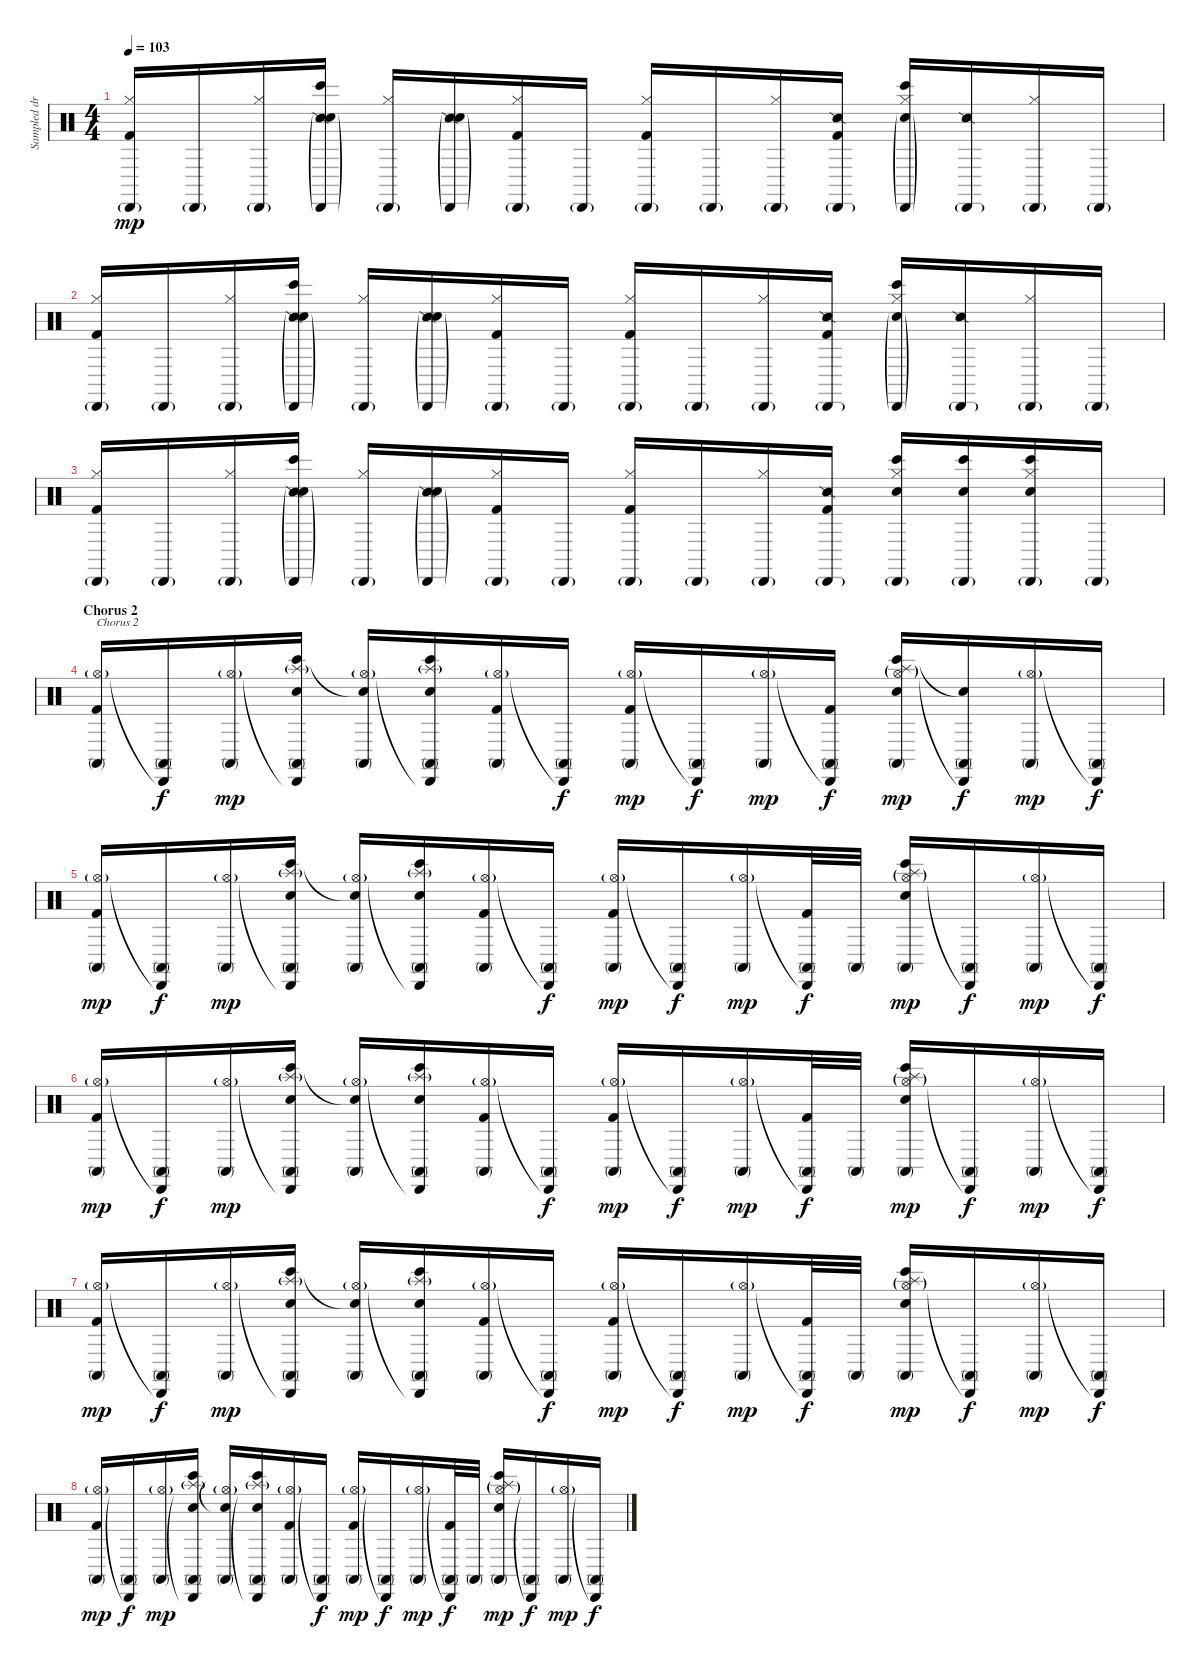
\track ("Sampled drums (Rob with Joe)" "Sampled dr") {instrument percussion}
\staff {score}
\articulation defaults
\ts (4 4)
\tempo 103
\clef neutral
\ks c
("Cabasa (hit)"{g} "Hi-Hat (closed)" "Kick (hit) 2").16{dy mp} "Cabasa (hit)"{g}.16 ("Cabasa (hit)"{g} "Hi-Hat (closed)").16 ("Cabasa (hit)"{g} "Snare (side stick) 2" "Bongo High (hit)" "Snare (hit) 2"{g}).16 ("Cabasa (hit)"{g} "Hi-Hat (closed)").16 ("Cabasa (hit)"{g} "Snare (side stick) 2" "Snare (hit) 2"{g}).16 ("Cabasa (hit)"{g} "Hi-Hat (closed)" "Kick (hit) 2").16 "Cabasa (hit)"{g}.16 ("Cabasa (hit)"{g} "Hi-Hat (closed)" "Kick (hit) 2").16 "Cabasa (hit)"{g}.16 ("Cabasa (hit)"{g} "Hi-Hat (closed)").16 ("Cabasa (hit)"{g} "Snare (side stick) 2" "Kick (hit) 2").16 ("Cabasa (hit)"{g} "Hi-Hat (closed)" "Bongo High (hit)" "Snare (hit) 2"{g}).16 ("Cabasa (hit)"{g} "Snare (side stick) 2").16 ("Cabasa (hit)"{g} "Hi-Hat (closed)").16 "Cabasa (hit)"{g}.16 |
("Cabasa (hit)"{g} "Hi-Hat (closed)" "Kick (hit) 2").16 "Cabasa (hit)"{g}.16 ("Cabasa (hit)"{g} "Hi-Hat (closed)").16 ("Cabasa (hit)"{g} "Snare (side stick) 2" "Bongo High (hit)" "Snare (hit) 2"{g}).16 ("Cabasa (hit)"{g} "Hi-Hat (closed)").16 ("Cabasa (hit)"{g} "Snare (side stick) 2" "Snare (hit) 2"{g}).16 ("Cabasa (hit)"{g} "Hi-Hat (closed)" "Kick (hit) 2").16 "Cabasa (hit)"{g}.16 ("Cabasa (hit)"{g} "Hi-Hat (closed)" "Kick (hit) 2").16 "Cabasa (hit)"{g}.16 ("Cabasa (hit)"{g} "Hi-Hat (closed)").16 ("Cabasa (hit)"{g} "Snare (side stick) 2" "Kick (hit) 2").16 ("Cabasa (hit)"{g} "Hi-Hat (closed)" "Bongo High (hit)" "Snare (hit) 2"{g}).16 ("Cabasa (hit)"{g} "Snare (side stick) 2").16 ("Cabasa (hit)"{g} "Hi-Hat (closed)").16 "Cabasa (hit)"{g}.16 |
("Cabasa (hit)"{g} "Hi-Hat (closed)" "Kick (hit) 2").16 "Cabasa (hit)"{g}.16 ("Cabasa (hit)"{g} "Hi-Hat (closed)").16 ("Cabasa (hit)"{g} "Snare (side stick) 2" "Bongo High (hit)" "Snare (hit) 2"{g}).16 ("Cabasa (hit)"{g} "Hi-Hat (closed)").16 ("Cabasa (hit)"{g} "Snare (side stick) 2" "Snare (hit) 2"{g}).16 ("Cabasa (hit)"{g} "Hi-Hat (closed)" "Kick (hit) 2").16 "Cabasa (hit)"{g}.16 ("Cabasa (hit)"{g} "Hi-Hat (closed)" "Kick (hit) 2").16 "Cabasa (hit)"{g}.16 ("Cabasa (hit)"{g} "Hi-Hat (closed)").16 ("Cabasa (hit)"{g} "Snare (side stick) 2" "Kick (hit) 2").16 ("Cabasa (hit)"{g} "Hi-Hat (closed)" "Bongo High (hit)" "Snare (hit) 2").16 ("Cabasa (hit)"{g} "Bongo High (hit)" "Snare (hit) 2").16 ("Cabasa (hit)"{g} "Hi-Hat (closed)" "Bongo High (hit)" "Snare (hit) 2").16 "Cabasa (hit)"{g}.16 |
\section ("" "Chorus 2")
("Hi-Hat (open)"{g} "Conga high (mute)" "Kick (hit) 2").16{txt "Chorus 2" volume 8} ("Cabasa (hit)"{t} "Conga high (mute)").16{dy f} ("Hi-Hat (open)"{g} "Conga high (mute)").16{dy mp} ("Cabasa (hit)"{t} "Conga high (mute)" "Bongo High (hit)" "Snare (hit) 2" "Splash (hit)"{g}).16 ("Hi-Hat (open)"{g} "Conga high (mute)" "Snare (hit)"{t}).16 ("Cabasa (hit)"{t} "Conga high (mute)" "Bongo High (hit)" "Snare (hit) 2" "Splash (hit)"{g}).16 ("Hi-Hat (open)"{g} "Conga high (mute)" "Kick (hit) 2").16 ("Cabasa (hit)"{t} "Conga high (mute)").16{dy f} ("Hi-Hat (open)"{g} "Conga high (mute)" "Kick (hit) 2").16{dy mp} ("Cabasa (hit)"{t} "Conga high (mute)").16{dy f} ("Hi-Hat (open)"{g} "Conga high (mute)").16{dy mp} ("Cabasa (hit)"{t} "Conga high (mute)" "Kick (hit) 2").16{dy f} ("Hi-Hat (open)"{g} "Conga high (mute)" "Bongo High (hit)" "Snare (hit) 2" "Splash (hit)"{g}).16{dy mp} ("Cabasa (hit)"{t} "Conga high (mute)" "Snare (hit)"{t}).16{dy f} ("Hi-Hat (open)"{g} "Conga high (mute)").16{dy mp} ("Cabasa (hit)"{t} "Conga high (mute)").16{dy f} |
("Hi-Hat (open)"{g} "Conga high (mute)" "Kick (hit) 2").16{dy mp volume 8} ("Cabasa (hit)"{t} "Conga high (mute)").16{dy f} ("Hi-Hat (open)"{g} "Conga high (mute)").16{dy mp} ("Cabasa (hit)"{t} "Conga high (mute)" "Bongo High (hit)" "Snare (hit) 2" "Splash (hit)"{g}).16 ("Hi-Hat (open)"{g} "Conga high (mute)" "Snare (hit)"{t}).16 ("Cabasa (hit)"{t} "Conga high (mute)" "Bongo High (hit)" "Snare (hit) 2" "Splash (hit)"{g}).16 ("Hi-Hat (open)"{g} "Conga high (mute)" "Kick (hit) 2").16 ("Cabasa (hit)"{t} "Conga high (mute)").16{dy f} ("Hi-Hat (open)"{g} "Conga high (mute)" "Kick (hit) 2").16{dy mp} ("Cabasa (hit)"{t} "Conga high (mute)").16{dy f} ("Hi-Hat (open)"{g} "Conga high (mute)").16{dy mp} ("Cabasa (hit)"{t} "Conga high (mute)" "Kick (hit) 2").32{dy f} "Conga high (mute)".32 ("Hi-Hat (open)"{g} "Conga high (mute)" "Bongo High (hit)" "Snare (hit) 2" "Splash (hit)"{g}).16{dy mp} ("Cabasa (hit)"{t} "Conga high (mute)").16{dy f} ("Hi-Hat (open)"{g} "Conga high (mute)").16{dy mp} ("Cabasa (hit)"{t} "Conga high (mute)").16{dy f} |
("Hi-Hat (open)"{g} "Conga high (mute)" "Kick (hit) 2").16{dy mp volume 8} ("Cabasa (hit)"{t} "Conga high (mute)").16{dy f} ("Hi-Hat (open)"{g} "Conga high (mute)").16{dy mp} ("Cabasa (hit)"{t} "Conga high (mute)" "Bongo High (hit)" "Snare (hit) 2" "Splash (hit)"{g}).16 ("Hi-Hat (open)"{g} "Conga high (mute)" "Snare (hit)"{t}).16 ("Cabasa (hit)"{t} "Conga high (mute)" "Bongo High (hit)" "Snare (hit) 2" "Splash (hit)"{g}).16 ("Hi-Hat (open)"{g} "Conga high (mute)" "Kick (hit) 2").16 ("Cabasa (hit)"{t} "Conga high (mute)").16{dy f} ("Hi-Hat (open)"{g} "Conga high (mute)" "Kick (hit) 2").16{dy mp} ("Cabasa (hit)"{t} "Conga high (mute)").16{dy f} ("Hi-Hat (open)"{g} "Conga high (mute)").16{dy mp} ("Cabasa (hit)"{t} "Conga high (mute)" "Kick (hit) 2").32{dy f} "Conga high (mute)".32 ("Hi-Hat (open)"{g} "Conga high (mute)" "Bongo High (hit)" "Snare (hit) 2" "Splash (hit)"{g}).16{dy mp} ("Cabasa (hit)"{t} "Conga high (mute)").16{dy f} ("Hi-Hat (open)"{g} "Conga high (mute)").16{dy mp} ("Cabasa (hit)"{t} "Conga high (mute)").16{dy f} |
("Hi-Hat (open)"{g} "Conga high (mute)" "Kick (hit) 2").16{dy mp volume 8} ("Cabasa (hit)"{t} "Conga high (mute)").16{dy f} ("Hi-Hat (open)"{g} "Conga high (mute)").16{dy mp} ("Cabasa (hit)"{t} "Conga high (mute)" "Bongo High (hit)" "Snare (hit) 2" "Splash (hit)"{g}).16 ("Hi-Hat (open)"{g} "Conga high (mute)" "Snare (hit)"{t}).16 ("Cabasa (hit)"{t} "Conga high (mute)" "Bongo High (hit)" "Snare (hit) 2" "Splash (hit)"{g}).16 ("Hi-Hat (open)"{g} "Conga high (mute)" "Kick (hit) 2").16 ("Cabasa (hit)"{t} "Conga high (mute)").16{dy f} ("Hi-Hat (open)"{g} "Conga high (mute)" "Kick (hit) 2").16{dy mp} ("Cabasa (hit)"{t} "Conga high (mute)").16{dy f} ("Hi-Hat (open)"{g} "Conga high (mute)").16{dy mp} ("Cabasa (hit)"{t} "Conga high (mute)" "Kick (hit) 2").32{dy f} "Conga high (mute)".32 ("Hi-Hat (open)"{g} "Conga high (mute)" "Bongo High (hit)" "Snare (hit) 2" "Splash (hit)"{g}).16{dy mp} ("Cabasa (hit)"{t} "Conga high (mute)").16{dy f} ("Hi-Hat (open)"{g} "Conga high (mute)").16{dy mp} ("Cabasa (hit)"{t} "Conga high (mute)").16{dy f} |
("Hi-Hat (open)"{g} "Conga high (mute)" "Kick (hit) 2").16{dy mp volume 8} ("Cabasa (hit)"{t} "Conga high (mute)").16{dy f} ("Hi-Hat (open)"{g} "Conga high (mute)").16{dy mp} ("Cabasa (hit)"{t} "Conga high (mute)" "Bongo High (hit)" "Snare (hit) 2" "Splash (hit)"{g}).16 ("Hi-Hat (open)"{g} "Conga high (mute)" "Snare (hit)"{t}).16 ("Cabasa (hit)"{t} "Conga high (mute)" "Bongo High (hit)" "Snare (hit) 2" "Splash (hit)"{g}).16 ("Hi-Hat (open)"{g} "Conga high (mute)" "Kick (hit) 2").16 ("Cabasa (hit)"{t} "Conga high (mute)").16{dy f} ("Hi-Hat (open)"{g} "Conga high (mute)" "Kick (hit) 2").16{dy mp} ("Cabasa (hit)"{t} "Conga high (mute)").16{dy f} ("Hi-Hat (open)"{g} "Conga high (mute)").16{dy mp} ("Cabasa (hit)"{t} "Conga high (mute)" "Kick (hit) 2").32{dy f} "Conga high (mute)".32 ("Hi-Hat (open)"{g} "Conga high (mute)" "Bongo High (hit)" "Snare (hit) 2" "Splash (hit)"{g}).16{dy mp} ("Cabasa (hit)"{t} "Conga high (mute)").16{dy f} ("Hi-Hat (open)"{g} "Conga high (mute)").16{dy mp} ("Cabasa (hit)"{t} "Conga high (mute)").16{dy f}
